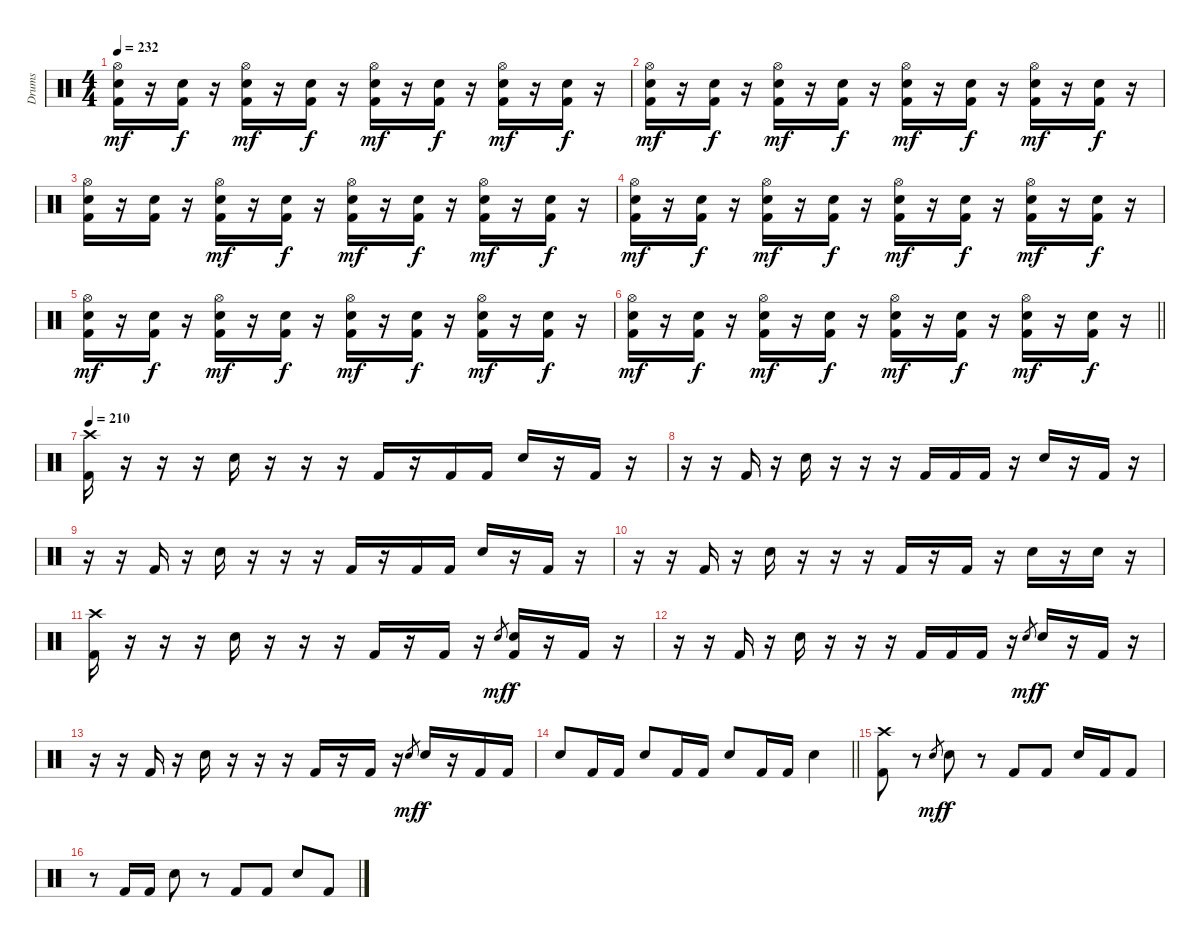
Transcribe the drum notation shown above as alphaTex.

\track ("Drums" "Drums") {instrument percussion}
\staff {score}
\articulation defaults
\ts (4 4)
\tempo 232
\clef neutral
\ks c
("Hi-Hat (open)" "Snare (hit) 2" "Kick (hit) 2").16{dy mf} r.16 ("Snare (hit) 2" "Kick (hit) 2").16{dy f} r.16 ("Hi-Hat (open)" "Snare (hit) 2" "Kick (hit) 2").16{dy mf} r.16 ("Snare (hit) 2" "Kick (hit) 2").16{dy f} r.16 ("Hi-Hat (open)" "Snare (hit) 2" "Kick (hit) 2").16{dy mf} r.16 ("Snare (hit) 2" "Kick (hit) 2").16{dy f} r.16 ("Hi-Hat (open)" "Snare (hit) 2" "Kick (hit) 2").16{dy mf} r.16 ("Snare (hit) 2" "Kick (hit) 2").16{dy f} r.16 |
("Hi-Hat (open)" "Snare (hit) 2" "Kick (hit) 2").16{dy mf} r.16 ("Snare (hit) 2" "Kick (hit) 2").16{dy f} r.16 ("Hi-Hat (open)" "Snare (hit) 2" "Kick (hit) 2").16{dy mf} r.16 ("Snare (hit) 2" "Kick (hit) 2").16{dy f} r.16 ("Hi-Hat (open)" "Snare (hit) 2" "Kick (hit) 2").16{dy mf} r.16 ("Snare (hit) 2" "Kick (hit) 2").16{dy f} r.16 ("Hi-Hat (open)" "Snare (hit) 2" "Kick (hit) 2").16{dy mf} r.16 ("Snare (hit) 2" "Kick (hit) 2").16{dy f} r.16 |
("Hi-Hat (open)" "Snare (hit) 2" "Kick (hit) 2").16 r.16 ("Snare (hit) 2" "Kick (hit) 2").16 r.16 ("Hi-Hat (open)" "Snare (hit) 2" "Kick (hit) 2").16{dy mf} r.16 ("Snare (hit) 2" "Kick (hit) 2").16{dy f} r.16 ("Hi-Hat (open)" "Snare (hit) 2" "Kick (hit) 2").16{dy mf} r.16 ("Snare (hit) 2" "Kick (hit) 2").16{dy f} r.16 ("Hi-Hat (open)" "Snare (hit) 2" "Kick (hit) 2").16{dy mf} r.16 ("Snare (hit) 2" "Kick (hit) 2").16{dy f} r.16 |
("Hi-Hat (open)" "Snare (hit) 2" "Kick (hit) 2").16{dy mf} r.16 ("Snare (hit) 2" "Kick (hit) 2").16{dy f} r.16 ("Hi-Hat (open)" "Snare (hit) 2" "Kick (hit) 2").16{dy mf} r.16 ("Snare (hit) 2" "Kick (hit) 2").16{dy f} r.16 ("Hi-Hat (open)" "Snare (hit) 2" "Kick (hit) 2").16{dy mf} r.16 ("Snare (hit) 2" "Kick (hit) 2").16{dy f} r.16 ("Hi-Hat (open)" "Snare (hit) 2" "Kick (hit) 2").16{dy mf} r.16 ("Snare (hit) 2" "Kick (hit) 2").16{dy f} r.16 |
("Hi-Hat (open)" "Snare (hit) 2" "Kick (hit) 2").16{dy mf} r.16 ("Snare (hit) 2" "Kick (hit) 2").16{dy f} r.16 ("Hi-Hat (open)" "Snare (hit) 2" "Kick (hit) 2").16{dy mf} r.16 ("Snare (hit) 2" "Kick (hit) 2").16{dy f} r.16 ("Hi-Hat (open)" "Snare (hit) 2" "Kick (hit) 2").16{dy mf} r.16 ("Snare (hit) 2" "Kick (hit) 2").16{dy f} r.16 ("Hi-Hat (open)" "Snare (hit) 2" "Kick (hit) 2").16{dy mf} r.16 ("Snare (hit) 2" "Kick (hit) 2").16{dy f} r.16 |
\barLineRight lightlight
("Hi-Hat (open)" "Snare (hit) 2" "Kick (hit) 2").16{dy mf} r.16 ("Snare (hit) 2" "Kick (hit) 2").16{dy f} r.16 ("Hi-Hat (open)" "Snare (hit) 2" "Kick (hit) 2").16{dy mf} r.16 ("Snare (hit) 2" "Kick (hit) 2").16{dy f} r.16 ("Hi-Hat (open)" "Snare (hit) 2" "Kick (hit) 2").16{dy mf} r.16 ("Snare (hit) 2" "Kick (hit) 2").16{dy f} r.16 ("Hi-Hat (open)" "Snare (hit) 2" "Kick (hit) 2").16{dy mf} r.16 ("Snare (hit) 2" "Kick (hit) 2").16{dy f} r.16 |
\tempo 210
("Crash high (hit)" "Kick (hit) 2").16 r.16 r.16 r.16 "Snare (hit) 2".16 r.16 r.16 r.16 "Kick (hit) 2".16 r.16 "Kick (hit) 2".16 "Kick (hit) 2".16 "Snare (hit) 2".16 r.16 "Kick (hit) 2".16 r.16 |
r.16 r.16 "Kick (hit) 2".16 r.16 "Snare (hit) 2".16 r.16 r.16 r.16 "Kick (hit) 2".16 "Kick (hit) 2".16 "Kick (hit) 2".16 r.16 "Snare (hit) 2".16 r.16 "Kick (hit) 2".16 r.16 |
r.16 r.16 "Kick (hit) 2".16 r.16 "Snare (hit) 2".16 r.16 r.16 r.16 "Kick (hit) 2".16 r.16 "Kick (hit) 2".16 "Kick (hit) 2".16 "Snare (hit) 2".16 r.16 "Kick (hit) 2".16 r.16 |
r.16 r.16 "Kick (hit) 2".16 r.16 "Snare (hit) 2".16 r.16 r.16 r.16 "Kick (hit) 2".16 r.16 "Kick (hit) 2".16 r.16 "Snare (hit) 2".16 r.16 "Snare (hit) 2".16 r.16 |
("Crash high (hit)" "Kick (hit) 2").16 r.16 r.16 r.16 "Snare (hit) 2".16 r.16 r.16 r.16 "Kick (hit) 2".16 r.16 "Kick (hit) 2".16 r.16 "Snare (hit) 2".8{gr dy mf} ("Snare (hit) 2" "Kick (hit) 2").16{dy f} r.16 "Kick (hit) 2".16 r.16 |
r.16 r.16 "Kick (hit) 2".16 r.16 "Snare (hit) 2".16 r.16 r.16 r.16 "Kick (hit) 2".16 "Kick (hit) 2".16 "Kick (hit) 2".16 r.16 "Snare (hit) 2".8{gr dy mf} "Snare (hit) 2".16{dy f} r.16 "Kick (hit) 2".16 r.16 |
r.16 r.16 "Kick (hit) 2".16 r.16 "Snare (hit) 2".16 r.16 r.16 r.16 "Kick (hit) 2".16 r.16 "Kick (hit) 2".16 r.16 "Snare (hit) 2".8{gr dy mf} "Snare (hit) 2".16{dy f} r.16 "Kick (hit) 2".16 "Kick (hit) 2".16 |
\barLineRight lightlight "Snare (hit) 2".8 "Kick (hit) 2".16 "Kick (hit) 2".16 "Snare (hit) 2".8 "Kick (hit) 2".16 "Kick (hit) 2".16 "Snare (hit) 2".8 "Kick (hit) 2".16 "Kick (hit) 2".16 "Snare (hit) 2".4
|
("Crash high (hit)" "Kick (hit) 2").8 r.8 "Snare (hit) 2".8{gr dy mf} "Snare (hit) 2".8{dy f} r.8 "Kick (hit) 2".8 "Kick (hit) 2".8 "Snare (hit) 2".16 "Kick (hit) 2".16 "Kick (hit) 2".8 |
r.8 "Kick (hit) 2".16 "Kick (hit) 2".16 "Snare (hit) 2".8 r.8 "Kick (hit) 2".8 "Kick (hit) 2".8 "Snare (hit) 2".8 "Kick (hit) 2".8
